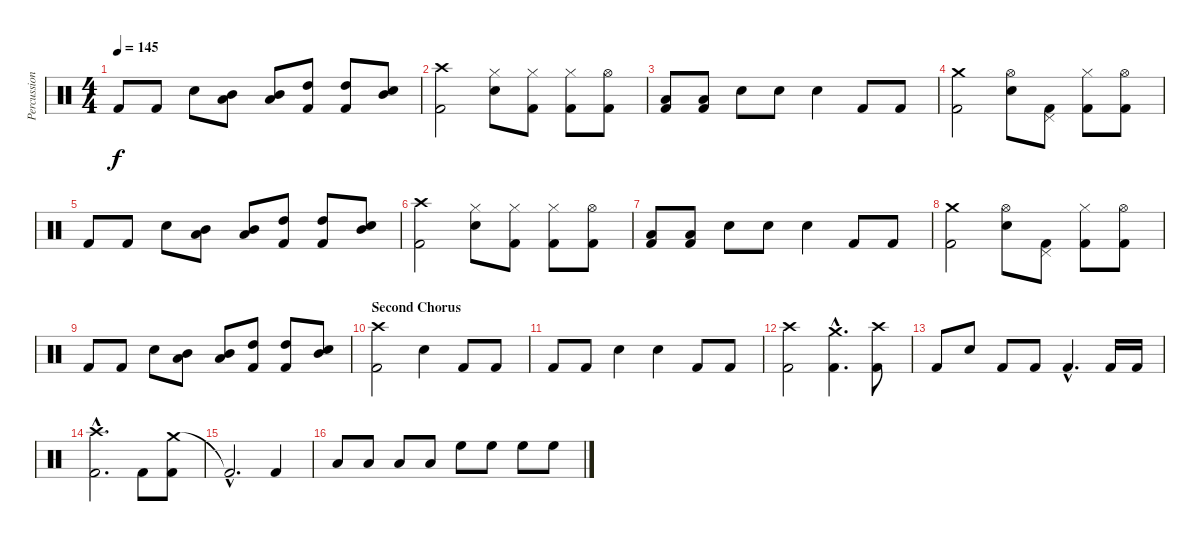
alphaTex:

\track ("Percussion" "Percussion") {instrument percussion}
\staff {score}
\articulation defaults
\ts (4 4)
\tempo 145
\clef neutral
\ks c "Kick (hit) 2".8{dy f} "Kick (hit) 2".8 "Snare (hit) 2".8
("Low Tom (hit)" "Mid Tom (hit)").8 ("Low Tom (hit)" "Mid Tom (hit)").8 ("High Tom (hit)" "Kick (hit) 2").8 ("High Tom (hit)" "Kick (hit) 2").8 ("Mid Tom (hit)" "Snare (hit) 2").8 |
("Crash high (hit)" "Kick (hit) 2").2 ("Hi-Hat (closed)" "Snare (hit) 2").8 ("Hi-Hat (closed)" "Kick (hit) 2").8 ("Hi-Hat (closed)" "Kick (hit) 2").8 ("Hi-Hat (open)" "Kick (hit) 2").8 |
("Low Tom (hit)" "Kick (hit) 2").8 ("Low Tom (hit)" "Kick (hit) 2").8 "Snare (hit) 2".8 "Snare (hit)".8 "Snare (hit) 2".4 "Kick (hit) 2".8 "Kick (hit) 2".8 |
("Crash medium (hit)" "Kick (hit) 2").2 ("Hi-Hat (open)" "Snare (hit) 2").8 ("Pedal Hi-Hat (hit)" "Kick (hit) 2").8 ("Hi-Hat (closed)" "Kick (hit) 2").8 ("Hi-Hat (open)" "Kick (hit) 2").8 |
"Kick (hit) 2".8 "Kick (hit) 2".8 "Snare (hit) 2".8 ("Low Tom (hit)" "Mid Tom (hit)").8 ("Low Tom (hit)" "Mid Tom (hit)").8 ("High Tom (hit)" "Kick (hit) 2").8 ("High Tom (hit)" "Kick (hit) 2").8 ("Mid Tom (hit)" "Snare (hit) 2").8 |
("Crash high (hit)" "Kick (hit) 2").2 ("Hi-Hat (closed)" "Snare (hit) 2").8 ("Hi-Hat (closed)" "Kick (hit) 2").8 ("Hi-Hat (closed)" "Kick (hit) 2").8 ("Hi-Hat (open)" "Kick (hit) 2").8 |
("Low Tom (hit)" "Kick (hit) 2").8 ("Low Tom (hit)" "Kick (hit) 2").8 "Snare (hit) 2".8 "Snare (hit)".8 "Snare (hit) 2".4 "Kick (hit) 2".8 "Kick (hit) 2".8 |
("Crash medium (hit)" "Kick (hit) 2").2 ("Hi-Hat (open)" "Snare (hit) 2").8 ("Pedal Hi-Hat (hit)" "Kick (hit) 2").8 ("Hi-Hat (closed)" "Kick (hit) 2").8 ("Hi-Hat (open)" "Kick (hit) 2").8 |
"Kick (hit) 2".8 "Kick (hit) 2".8 "Snare (hit) 2".8 ("Low Tom (hit)" "Mid Tom (hit)").8 ("Low Tom (hit)" "Mid Tom (hit)").8 ("High Tom (hit)" "Kick (hit) 2").8 ("High Tom (hit)" "Kick (hit) 2").8 ("Mid Tom (hit)" "Snare (hit) 2").8 |
\section ("" "Second Chorus")
("Crash high (hit)" "Kick (hit) 2").2 "Snare (hit) 2".4 "Kick (hit) 2".8 "Kick (hit) 2".8 |
"Kick (hit) 2".8 "Kick (hit) 2".8 "Snare (hit) 2".4 "Snare (hit) 2".4 "Kick (hit) 2".8 "Kick (hit) 2".8 |
("Crash high (hit)" "Kick (hit) 2").2 ("Crash medium (hit)"{hac} "Kick (hit) 2"{hac}).4{d} ("Crash high (hit)" "Kick (hit) 2").8 |
"Kick (hit) 2".8 "Snare (hit) 2".8 "Kick (hit) 2".8 "Kick (hit) 2".8 "Kick (hit) 2"{hac}.4{d} "Kick (hit) 2".16 "Kick (hit) 2".16 |
("Crash high (hit)"{hac} "Kick (hit) 2"{hac}).2{d} "Kick (hit) 2".8 ("Crash medium (hit)" "Kick (hit) 2").8 |
"Kick (hit) 2"{hac t}.2{d} "Kick (hit) 2".4 |
"Low Tom (hit)".8 "Low Tom (hit)".8 "Low Tom (hit)".8 "Low Tom (hit)".8 "High Floor Tom (hit)".8 "High Floor Tom (hit)".8 "High Floor Tom (hit)".8 "High Floor Tom (hit)".8
